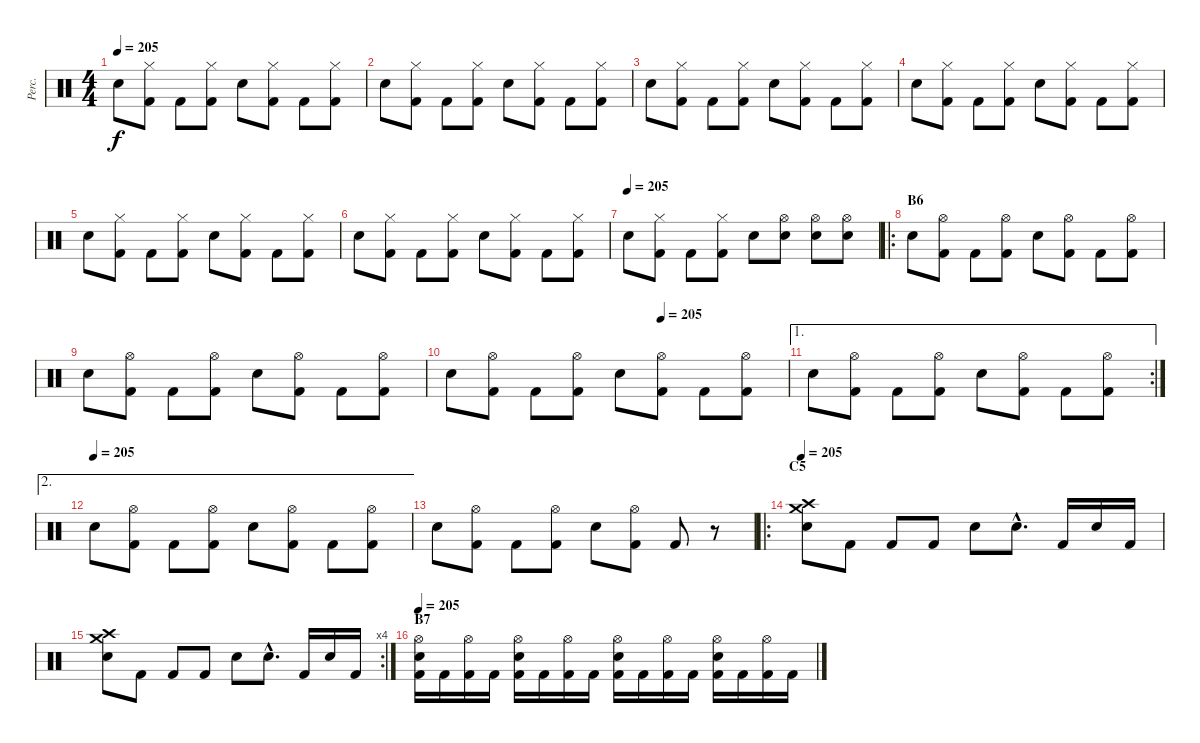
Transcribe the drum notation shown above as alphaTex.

\track ("Perc." "Perc.") {instrument percussion}
\staff {score}
\articulation defaults
\ts (4 4)
\tempo 205
\clef neutral
\ks c "Snare (hit) 2".8{dy f}
("Hi-Hat (closed)" "Kick (hit) 2").8 "Kick (hit) 2".8 ("Hi-Hat (closed)" "Kick (hit) 2").8 "Snare (hit) 2".8 ("Hi-Hat (closed)" "Kick (hit) 2").8 "Kick (hit) 2".8 ("Hi-Hat (closed)" "Kick (hit) 2").8 |
"Snare (hit) 2".8 ("Hi-Hat (closed)" "Kick (hit) 2").8 "Kick (hit) 2".8 ("Hi-Hat (closed)" "Kick (hit) 2").8 "Snare (hit) 2".8 ("Hi-Hat (closed)" "Kick (hit) 2").8 "Kick (hit) 2".8 ("Hi-Hat (closed)" "Kick (hit) 2").8 |
"Snare (hit) 2".8 ("Hi-Hat (closed)" "Kick (hit) 2").8 "Kick (hit) 2".8 ("Hi-Hat (closed)" "Kick (hit) 2").8 "Snare (hit) 2".8 ("Hi-Hat (closed)" "Kick (hit) 2").8 "Kick (hit) 2".8 ("Hi-Hat (closed)" "Kick (hit) 2").8 |
"Snare (hit) 2".8 ("Hi-Hat (closed)" "Kick (hit) 2").8 "Kick (hit) 2".8 ("Hi-Hat (closed)" "Kick (hit) 2").8 "Snare (hit) 2".8 ("Hi-Hat (closed)" "Kick (hit) 2").8 "Kick (hit) 2".8 ("Hi-Hat (closed)" "Kick (hit) 2").8 |
"Snare (hit) 2".8 ("Hi-Hat (closed)" "Kick (hit) 2").8 "Kick (hit) 2".8 ("Hi-Hat (closed)" "Kick (hit) 2").8 "Snare (hit) 2".8 ("Hi-Hat (closed)" "Kick (hit) 2").8 "Kick (hit) 2".8 ("Hi-Hat (closed)" "Kick (hit) 2").8 |
"Snare (hit) 2".8 ("Hi-Hat (closed)" "Kick (hit) 2").8 "Kick (hit) 2".8 ("Hi-Hat (closed)" "Kick (hit) 2").8 "Snare (hit) 2".8 ("Hi-Hat (closed)" "Kick (hit) 2").8 "Kick (hit) 2".8 ("Hi-Hat (closed)" "Kick (hit) 2").8 |
\tempo (205)
"Snare (hit) 2".8 ("Hi-Hat (closed)" "Kick (hit) 2").8 "Kick (hit) 2".8 ("Hi-Hat (closed)" "Kick (hit) 2").8 "Snare (hit) 2".8 ("Hi-Hat (open)" "Snare (hit) 2").8 ("Hi-Hat (open)" "Snare (hit) 2").8 ("Hi-Hat (open)" "Snare (hit) 2").8 |
\ro
\section ("" "B6")
"Snare (hit) 2".8 ("Hi-Hat (open)" "Kick (hit) 2").8 "Kick (hit) 2".8 ("Hi-Hat (open)" "Kick (hit) 2").8 "Snare (hit) 2".8 ("Hi-Hat (open)" "Kick (hit) 2").8 "Kick (hit) 2".8 ("Hi-Hat (open)" "Kick (hit) 2").8 |
"Snare (hit) 2".8 ("Hi-Hat (open)" "Kick (hit) 2").8 "Kick (hit) 2".8 ("Hi-Hat (open)" "Kick (hit) 2").8 "Snare (hit) 2".8 ("Hi-Hat (open)" "Kick (hit) 2").8 "Kick (hit) 2".8 ("Hi-Hat (open)" "Kick (hit) 2").8 |
\tempo (205 0.625)
"Snare (hit) 2".8 ("Hi-Hat (open)" "Kick (hit) 2").8 "Kick (hit) 2".8 ("Hi-Hat (open)" "Kick (hit) 2").8 "Snare (hit) 2".8 ("Hi-Hat (open)" "Kick (hit) 2").8 "Kick (hit) 2".8 ("Hi-Hat (open)" "Kick (hit) 2").8 |
\ae 1
\rc 2 "Snare (hit) 2".8
("Hi-Hat (open)" "Kick (hit) 2").8 "Kick (hit) 2".8 ("Hi-Hat (open)" "Kick (hit) 2").8 "Snare (hit) 2".8 ("Hi-Hat (open)" "Kick (hit) 2").8 "Kick (hit) 2".8 ("Hi-Hat (open)" "Kick (hit) 2").8 |
\ae 2
\tempo (205)
"Snare (hit) 2".8 ("Hi-Hat (open)" "Kick (hit) 2").8 "Kick (hit) 2".8 ("Hi-Hat (open)" "Kick (hit) 2").8 "Snare (hit) 2".8 ("Hi-Hat (open)" "Kick (hit) 2").8 "Kick (hit) 2".8 ("Hi-Hat (open)" "Kick (hit) 2").8 |
"Snare (hit) 2".8 ("Hi-Hat (open)" "Kick (hit) 2").8 "Kick (hit) 2".8 ("Hi-Hat (open)" "Kick (hit) 2").8 "Snare (hit) 2".8 ("Hi-Hat (open)" "Kick (hit) 2").8 "Kick (hit) 2".8 r.8 |
\ro
\section ("" "C5")
\tempo 205
("Crash medium (hit)" "Crash high (hit)" "Snare (hit) 2").8 "Kick (hit) 2".8 "Kick (hit) 2".8 "Kick (hit) 2".8 "Snare (hit) 2".8 "Snare (hit) 2"{hac}.8{d} "Kick (hit) 2".16 "Snare (hit) 2".16 "Kick (hit) 2".16 |
\rc 4
("Crash medium (hit)" "Crash high (hit)" "Snare (hit) 2").8 "Kick (hit) 2".8 "Kick (hit) 2".8 "Kick (hit) 2".8 "Snare (hit) 2".8 "Snare (hit) 2"{hac}.8{d} "Kick (hit) 2".16 "Snare (hit) 2".16 "Kick (hit) 2".16 |
\section ("" "B7")
\tempo 205
("Hi-Hat (open)" "Kick (hit) 2" "Snare (hit) 2").16 "Kick (hit) 2".16 ("Hi-Hat (open)" "Kick (hit) 2").16 "Kick (hit) 2".16 ("Hi-Hat (open)" "Snare (hit) 2" "Kick (hit) 2").16 "Kick (hit) 2".16 ("Hi-Hat (open)" "Kick (hit) 2").16 "Kick (hit) 2".16 ("Hi-Hat (open)" "Snare (hit) 2" "Kick (hit) 2").16 "Kick (hit) 2".16 ("Hi-Hat (open)" "Kick (hit) 2").16 "Kick (hit) 2".16 ("Hi-Hat (open)" "Snare (hit) 2" "Kick (hit) 2").16 "Kick (hit) 2".16 ("Hi-Hat (open)" "Kick (hit) 2").16 "Kick (hit) 2".16
